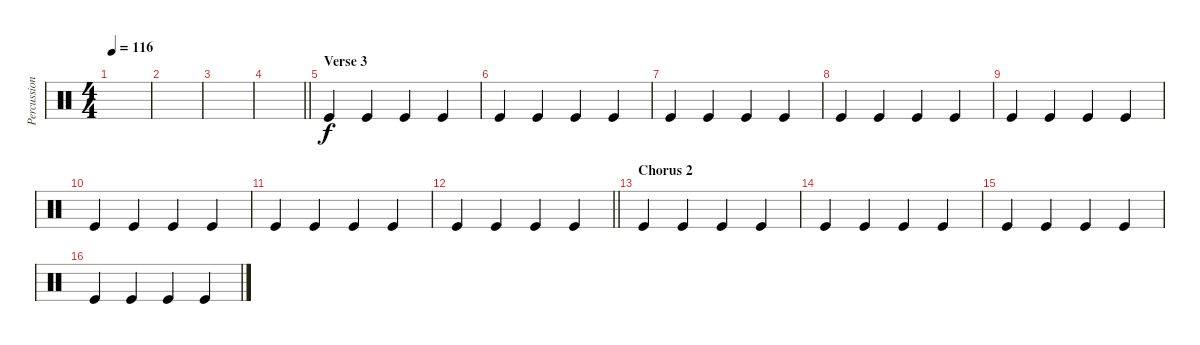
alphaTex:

\track ("Percussion" "Percussion") {instrument percussion}
\staff {score}
\articulation defaults
\ts (4 4)
\tempo 116
\clef neutral
\ks c
|
|
|
\barLineRight lightlight
|
\section ("" "Verse 3")
"Kick (hit)".4 "Kick (hit)".4 "Kick (hit)".4 "Kick (hit)".4 |
"Kick (hit)".4 "Kick (hit)".4 "Kick (hit)".4 "Kick (hit)".4 |
"Kick (hit)".4 "Kick (hit)".4 "Kick (hit)".4 "Kick (hit)".4 |
"Kick (hit)".4 "Kick (hit)".4 "Kick (hit)".4 "Kick (hit)".4 |
"Kick (hit)".4 "Kick (hit)".4 "Kick (hit)".4 "Kick (hit)".4 |
"Kick (hit)".4 "Kick (hit)".4 "Kick (hit)".4 "Kick (hit)".4 |
"Kick (hit)".4 "Kick (hit)".4 "Kick (hit)".4 "Kick (hit)".4 |
\barLineRight lightlight "Kick (hit)".4 "Kick (hit)".4 "Kick (hit)".4 "Kick (hit)".4
|
\section ("" "Chorus 2")
"Kick (hit)".4 "Kick (hit)".4 "Kick (hit)".4 "Kick (hit)".4 |
"Kick (hit)".4 "Kick (hit)".4 "Kick (hit)".4 "Kick (hit)".4 |
"Kick (hit)".4 "Kick (hit)".4 "Kick (hit)".4 "Kick (hit)".4 |
"Kick (hit)".4 "Kick (hit)".4 "Kick (hit)".4 "Kick (hit)".4
